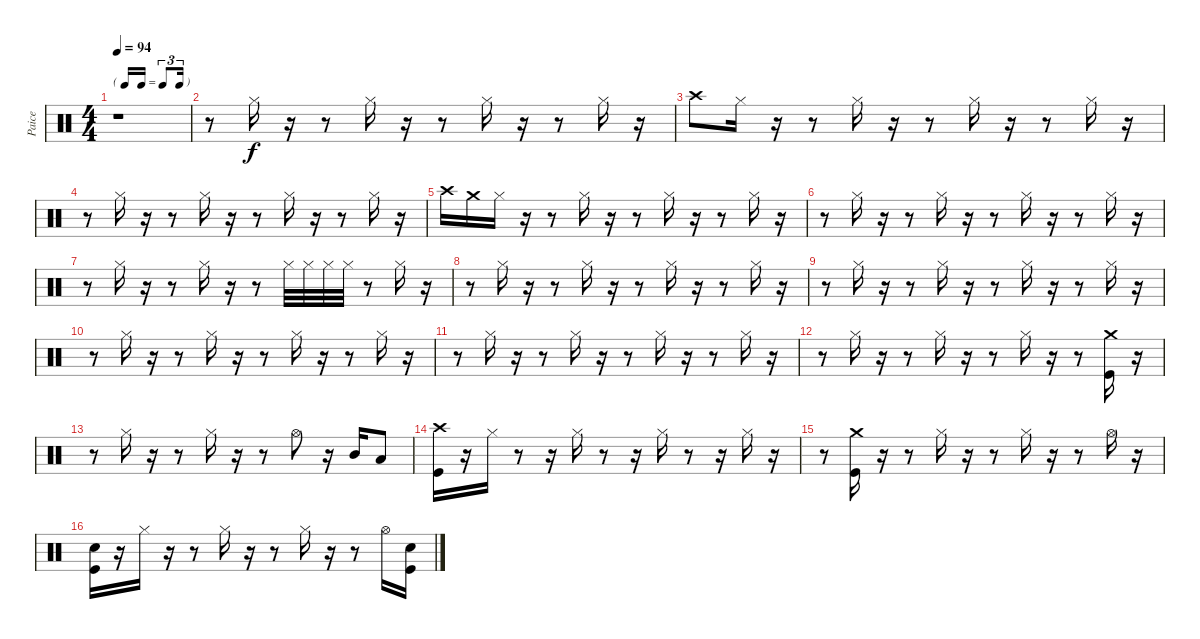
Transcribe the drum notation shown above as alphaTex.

\track ("Paice" "Paice") {instrument percussion}
\staff {score}
\articulation defaults
\ts (4 4)
\tf triplet16th
\tempo 94
\clef neutral
\ks c
r.1{dy f} |
r.8 "Hi-Hat (closed)".16 r.16 r.8 "Hi-Hat (closed)".16 r.16 r.8 "Hi-Hat (closed)".16 r.16 r.8 "Hi-Hat (closed)".16 r.16 |
"Crash high (hit)".8 "Hi-Hat (closed)".16 r.16 r.8 "Hi-Hat (closed)".16 r.16 r.8 "Hi-Hat (closed)".16 r.16 r.8 "Hi-Hat (closed)".16 r.16 |
r.8 "Hi-Hat (closed)".16 r.16 r.8 "Hi-Hat (closed)".16 r.16 r.8 "Hi-Hat (closed)".16 r.16 r.8 "Hi-Hat (closed)".16 r.16 |
"Crash high (hit)".16 "Crash medium (hit)".16 "Hi-Hat (closed)".16 r.16 r.8 "Hi-Hat (closed)".16 r.16 r.8 "Hi-Hat (closed)".16 r.16 r.8 "Hi-Hat (closed)".16 r.16 |
r.8 "Hi-Hat (closed)".16 r.16 r.8 "Hi-Hat (closed)".16 r.16 r.8 "Hi-Hat (closed)".16 r.16 r.8 "Hi-Hat (closed)".16 r.16 |
r.8 "Hi-Hat (closed)".16 r.16 r.8 "Hi-Hat (closed)".16 r.16 r.8 "Hi-Hat (closed)".32 "Hi-Hat (closed)".32 "Hi-Hat (closed)".32 "Hi-Hat (closed)".32 r.8 "Hi-Hat (closed)".16 r.16 |
r.8 "Hi-Hat (closed)".16 r.16 r.8 "Hi-Hat (closed)".16 r.16 r.8 "Hi-Hat (closed)".16 r.16 r.8 "Hi-Hat (closed)".16 r.16 |
r.8 "Hi-Hat (closed)".16 r.16 r.8 "Hi-Hat (closed)".16 r.16 r.8 "Hi-Hat (closed)".16 r.16 r.8 "Hi-Hat (closed)".16 r.16 |
r.8 "Hi-Hat (closed)".16 r.16 r.8 "Hi-Hat (closed)".16 r.16 r.8 "Hi-Hat (closed)".16 r.16 r.8 "Hi-Hat (closed)".16 r.16 |
r.8 "Hi-Hat (closed)".16 r.16 r.8 "Hi-Hat (closed)".16 r.16 r.8 "Hi-Hat (closed)".16 r.16 r.8 "Hi-Hat (closed)".16 r.16 |
r.8 "Hi-Hat (closed)".16 r.16 r.8 "Hi-Hat (closed)".16 r.16 r.8 "Hi-Hat (closed)".16 r.16 r.8 ("Crash medium (hit)" "Kick (hit)").16 r.16 |
r.8 "Hi-Hat (closed)".16 r.16 r.8 "Hi-Hat (closed)".16 r.16 r.8 "Hi-Hat (open)".8 r.16 "Mid Tom (hit)".16 "Low Tom (hit)".8 |
("Crash high (hit)" "Kick (hit)").16 r.16 "Hi-Hat (closed)".16 r.8 r.16 "Hi-Hat (closed)".16 r.8 r.16 "Hi-Hat (closed)".16 r.8 r.16 "Hi-Hat (closed)".16 r.16 |
r.8 ("Crash medium (hit)" "Kick (hit)").16 r.16 r.8 "Hi-Hat (closed)".16 r.16 r.8 "Hi-Hat (closed)".16 r.16 r.8 "Hi-Hat (open)".16 r.16 |
("Snare (hit) 2" "Kick (hit)").16 r.16 "Hi-Hat (closed)".16 r.16 r.8 "Hi-Hat (closed)".16 r.16 r.8 "Hi-Hat (closed)".16 r.16 r.8 "Hi-Hat (open)".16 ("Snare (hit) 2" "Kick (hit)").16
